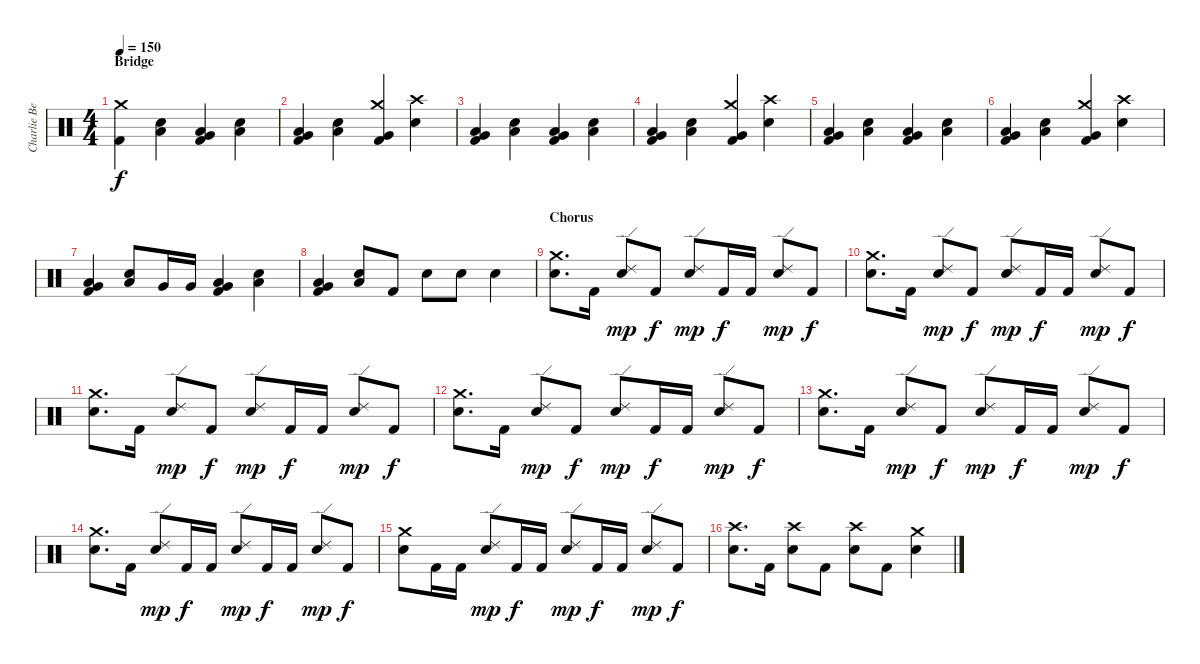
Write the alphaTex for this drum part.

\track ("Charlie Benante" "Charlie Be") {instrument percussion}
\staff {score}
\articulation defaults
\ts (4 4)
\section ("" "Bridge")
\tempo 150
\clef neutral
\ks c
("Kick (hit) 2" "Crash medium (hit)").4{dy f} ("Snare (hit) 2" "Low Tom (hit)").4 ("Kick (hit) 2" "Low Tom (hit)" "Very Low Tom (hit)").4 ("Snare (hit) 2" "Low Tom (hit)").4 |
("Kick (hit) 2" "Low Tom (hit)" "Very Low Tom (hit)").4 ("Snare (hit) 2" "Low Tom (hit)").4 ("Kick (hit) 2" "Crash medium (hit)" "Very Low Tom (hit)").4 ("Crash high (hit)" "Snare (hit) 2").4 |
("Kick (hit) 2" "Low Tom (hit)" "Very Low Tom (hit)").4 ("Snare (hit) 2" "Low Tom (hit)").4 ("Kick (hit) 2" "Low Tom (hit)" "Very Low Tom (hit)").4 ("Snare (hit) 2" "Low Tom (hit)").4 |
("Kick (hit) 2" "Low Tom (hit)" "Very Low Tom (hit)").4 ("Snare (hit) 2" "Low Tom (hit)").4 ("Kick (hit) 2" "Crash medium (hit)" "Very Low Tom (hit)").4 ("Crash high (hit)" "Snare (hit) 2").4 |
("Kick (hit) 2" "Low Tom (hit)" "Very Low Tom (hit)").4 ("Snare (hit) 2" "Low Tom (hit)").4 ("Kick (hit) 2" "Low Tom (hit)" "Very Low Tom (hit)").4 ("Snare (hit) 2" "Low Tom (hit)").4 |
("Kick (hit) 2" "Low Tom (hit)" "Very Low Tom (hit)").4 ("Snare (hit) 2" "Low Tom (hit)").4 ("Kick (hit) 2" "Crash medium (hit)" "Very Low Tom (hit)").4 ("Crash high (hit)" "Snare (hit) 2").4 |
("Kick (hit) 2" "Low Tom (hit)" "Very Low Tom (hit)").4 ("Snare (hit) 2" "Low Tom (hit)").8 "Very Low Tom (hit)".16 "Very Low Tom (hit)".16 ("Kick (hit) 2" "Low Tom (hit)" "Very Low Tom (hit)").4 ("Snare (hit) 2" "Low Tom (hit)").4 |
("Kick (hit) 2" "Low Tom (hit)" "Very Low Tom (hit)").4 ("Snare (hit) 2" "Low Tom (hit)").8 "Kick (hit) 2".8 "Snare (hit) 2".8 "Snare (hit) 2".8 "Snare (hit) 2".4 |
\section ("" "Chorus")
("Crash medium (hit)" "Snare (hit) 2").8{d} "Kick (hit) 2".16 ("Ride (edge) 2" "Snare (hit) 2").8{dy mp} "Kick (hit) 2".8{dy f} ("Ride (edge) 2" "Snare (hit) 2").8{dy mp} "Kick (hit) 2".16{dy f} "Kick (hit) 2".16 ("Ride (edge) 2" "Snare (hit) 2").8{dy mp} "Kick (hit) 2".8{dy f} |
("Crash medium (hit)" "Snare (hit) 2").8{d} "Kick (hit) 2".16 ("Ride (edge) 2" "Snare (hit) 2").8{dy mp} "Kick (hit) 2".8{dy f} ("Ride (edge) 2" "Snare (hit) 2").8{dy mp} "Kick (hit) 2".16{dy f} "Kick (hit) 2".16 ("Ride (edge) 2" "Snare (hit) 2").8{dy mp} "Kick (hit) 2".8{dy f} |
("Crash medium (hit)" "Snare (hit) 2").8{d} "Kick (hit) 2".16 ("Ride (edge) 2" "Snare (hit) 2").8{dy mp} "Kick (hit) 2".8{dy f} ("Ride (edge) 2" "Snare (hit) 2").8{dy mp} "Kick (hit) 2".16{dy f} "Kick (hit) 2".16 ("Ride (edge) 2" "Snare (hit) 2").8{dy mp} "Kick (hit) 2".8{dy f} |
("Crash medium (hit)" "Snare (hit) 2").8{d} "Kick (hit) 2".16 ("Ride (edge) 2" "Snare (hit) 2").8{dy mp} "Kick (hit) 2".8{dy f} ("Ride (edge) 2" "Snare (hit) 2").8{dy mp} "Kick (hit) 2".16{dy f} "Kick (hit) 2".16 ("Ride (edge) 2" "Snare (hit) 2").8{dy mp} "Kick (hit) 2".8{dy f} |
("Crash medium (hit)" "Snare (hit) 2").8{d} "Kick (hit) 2".16 ("Ride (edge) 2" "Snare (hit) 2").8{dy mp} "Kick (hit) 2".8{dy f} ("Ride (edge) 2" "Snare (hit) 2").8{dy mp} "Kick (hit) 2".16{dy f} "Kick (hit) 2".16 ("Ride (edge) 2" "Snare (hit) 2").8{dy mp} "Kick (hit) 2".8{dy f} |
("Crash medium (hit)" "Snare (hit) 2").8{d} "Kick (hit) 2".16 ("Ride (edge) 2" "Snare (hit) 2").8{dy mp} "Kick (hit) 2".16{dy f} "Kick (hit) 2".16 ("Ride (edge) 2" "Snare (hit) 2").8{dy mp} "Kick (hit) 2".16{dy f} "Kick (hit) 2".16 ("Ride (edge) 2" "Snare (hit) 2").8{dy mp} "Kick (hit) 2".8{dy f} |
("Crash medium (hit)" "Snare (hit) 2").8 "Kick (hit) 2".16 "Kick (hit) 2".16 ("Ride (edge) 2" "Snare (hit) 2").8{dy mp} "Kick (hit) 2".16{dy f} "Kick (hit) 2".16 ("Ride (edge) 2" "Snare (hit) 2").8{dy mp} "Kick (hit) 2".16{dy f} "Kick (hit) 2".16 ("Ride (edge) 2" "Snare (hit) 2").8{dy mp} "Kick (hit) 2".8{dy f} |
("Crash high (hit)" "Snare (hit) 2").8{d} "Kick (hit) 2".16 ("Crash high (hit)" "Snare (hit) 2").8 "Kick (hit) 2".8 ("Crash high (hit)" "Snare (hit) 2").8 "Kick (hit) 2".8 ("Crash medium (hit)" "Snare (hit) 2").4
